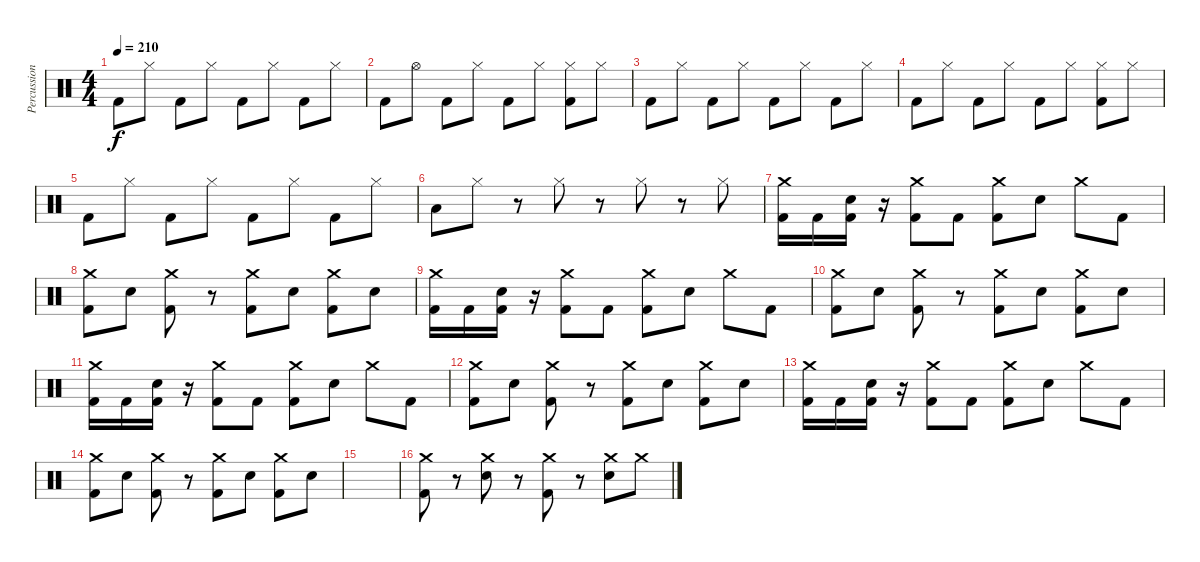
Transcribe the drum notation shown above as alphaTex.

\track ("Percussion" "Percussion") {instrument percussion}
\staff {score}
\articulation defaults
\ts (4 4)
\tempo 210
\clef neutral
\ks c "Kick (hit) 2".8{dy f} "Hi-Hat (closed)".8 "Kick (hit) 2".8 "Hi-Hat (closed)".8 "Kick (hit) 2".8 "Hi-Hat (closed)".8 "Kick (hit) 2".8 "Hi-Hat (closed)".8
|
"Kick (hit) 2".8 "Hi-Hat (open)".8 "Kick (hit) 2".8 "Hi-Hat (closed)".8 "Kick (hit) 2".8 "Hi-Hat (closed)".8 ("Kick (hit) 2" "Hi-Hat (closed)").8 "Hi-Hat (closed)".8 |
"Kick (hit) 2".8 "Hi-Hat (closed)".8 "Kick (hit) 2".8 "Hi-Hat (closed)".8 "Kick (hit) 2".8 "Hi-Hat (closed)".8 "Kick (hit) 2".8 "Hi-Hat (closed)".8 |
"Kick (hit) 2".8 "Hi-Hat (closed)".8 "Kick (hit) 2".8 "Hi-Hat (closed)".8 "Kick (hit) 2".8 "Hi-Hat (closed)".8 ("Kick (hit) 2" "Hi-Hat (closed)").8 "Hi-Hat (closed)".8 |
"Kick (hit) 2".8 "Hi-Hat (closed)".8 "Kick (hit) 2".8 "Hi-Hat (closed)".8 "Kick (hit) 2".8 "Hi-Hat (closed)".8 "Kick (hit) 2".8 "Hi-Hat (closed)".8 |
"Low Floor Tom (hit)".8 "Hi-Hat (closed)".8 r.8 "Hi-Hat (closed)".8 r.8 "Hi-Hat (closed)".8 r.8 "Hi-Hat (closed)".8 |
("Kick (hit) 2" "Crash medium (hit)").16 "Kick (hit) 2".16 ("Kick (hit) 2" "Snare (hit) 2").16 r.16 ("Kick (hit) 2" "Crash medium (hit)").8 "Kick (hit) 2".8 ("Kick (hit) 2" "Crash medium (hit)").8 "Snare (hit) 2".8 "Crash medium (hit)".8 "Kick (hit) 2".8 |
("Kick (hit) 2" "Crash medium (hit)").8 "Snare (hit) 2".8 ("Kick (hit) 2" "Crash medium (hit)").8 r.8 ("Kick (hit) 2" "Crash medium (hit)").8 "Snare (hit) 2".8 ("Kick (hit) 2" "Crash medium (hit)").8 "Snare (hit) 2".8 |
("Kick (hit) 2" "Crash medium (hit)").16 "Kick (hit) 2".16 ("Kick (hit) 2" "Snare (hit) 2").16 r.16 ("Kick (hit) 2" "Crash medium (hit)").8 "Kick (hit) 2".8 ("Kick (hit) 2" "Crash medium (hit)").8 "Snare (hit) 2".8 "Crash medium (hit)".8 "Kick (hit) 2".8 |
("Kick (hit) 2" "Crash medium (hit)").8 "Snare (hit) 2".8 ("Kick (hit) 2" "Crash medium (hit)").8 r.8 ("Kick (hit) 2" "Crash medium (hit)").8 "Snare (hit) 2".8 ("Kick (hit) 2" "Crash medium (hit)").8 "Snare (hit) 2".8 |
("Kick (hit) 2" "Crash medium (hit)").16 "Kick (hit) 2".16 ("Kick (hit) 2" "Snare (hit) 2").16 r.16 ("Kick (hit) 2" "Crash medium (hit)").8 "Kick (hit) 2".8 ("Kick (hit) 2" "Crash medium (hit)").8 "Snare (hit) 2".8 "Crash medium (hit)".8 "Kick (hit) 2".8 |
("Kick (hit) 2" "Crash medium (hit)").8 "Snare (hit) 2".8 ("Kick (hit) 2" "Crash medium (hit)").8 r.8 ("Kick (hit) 2" "Crash medium (hit)").8 "Snare (hit) 2".8 ("Kick (hit) 2" "Crash medium (hit)").8 "Snare (hit) 2".8 |
("Kick (hit) 2" "Crash medium (hit)").16 "Kick (hit) 2".16 ("Kick (hit) 2" "Snare (hit) 2").16 r.16 ("Kick (hit) 2" "Crash medium (hit)").8 "Kick (hit) 2".8 ("Kick (hit) 2" "Crash medium (hit)").8 "Snare (hit) 2".8 "Crash medium (hit)".8 "Kick (hit) 2".8 |
("Kick (hit) 2" "Crash medium (hit)").8 "Snare (hit) 2".8 ("Kick (hit) 2" "Crash medium (hit)").8 r.8 ("Kick (hit) 2" "Crash medium (hit)").8 "Snare (hit) 2".8 ("Kick (hit) 2" "Crash medium (hit)").8 "Snare (hit) 2".8 |
|
("Kick (hit) 2" "Crash medium (hit)").8 r.8 ("Snare (hit) 2" "Crash medium (hit)").8 r.8 ("Kick (hit) 2" "Crash medium (hit)").8 r.8 ("Snare (hit) 2" "Crash medium (hit)").8 "Crash medium (hit)".8
